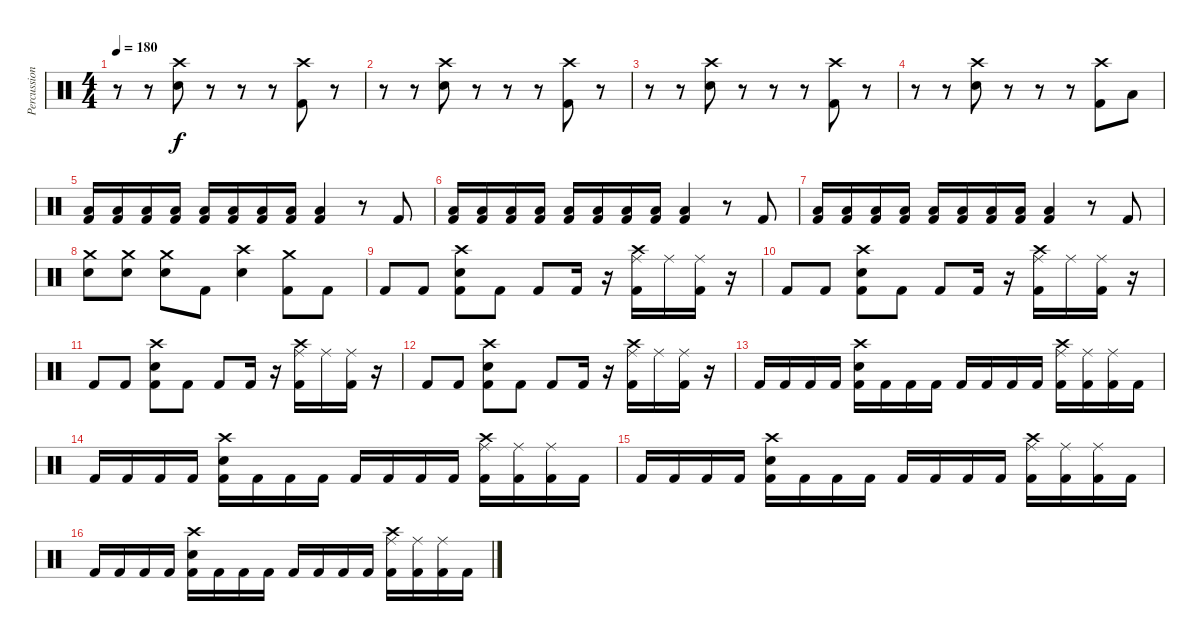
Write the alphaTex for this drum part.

\track ("Percussions" "Percussion") {instrument percussion}
\staff {score}
\articulation defaults
\ts (4 4)
\tempo 180
\clef neutral
\ks c
r.8{dy f} r.8 ("Crash high (hit)" "Snare (hit) 2").8 r.8 r.8 r.8 ("Crash high (hit)" "Kick (hit) 2").8 r.8 |
r.8 r.8 ("Crash high (hit)" "Snare (hit) 2").8 r.8 r.8 r.8 ("Crash high (hit)" "Kick (hit) 2").8 r.8 |
r.8 r.8 ("Crash high (hit)" "Snare (hit) 2").8 r.8 r.8 r.8 ("Crash high (hit)" "Kick (hit) 2").8 r.8 |
r.8 r.8 ("Crash high (hit)" "Snare (hit) 2").8 r.8 r.8 r.8 ("Crash high (hit)" "Kick (hit) 2").8 "Low Floor Tom (hit)".8 |
("Low Floor Tom (hit)" "Kick (hit) 2").16 ("Low Floor Tom (hit)" "Kick (hit) 2").16 ("Low Floor Tom (hit)" "Kick (hit) 2").16 ("Low Floor Tom (hit)" "Kick (hit) 2").16 ("Low Floor Tom (hit)" "Kick (hit) 2").16 ("Low Floor Tom (hit)" "Kick (hit) 2").16 ("Low Floor Tom (hit)" "Kick (hit) 2").16 ("Low Floor Tom (hit)" "Kick (hit) 2").16 ("Low Floor Tom (hit)" "Kick (hit) 2").4 r.8 "Kick (hit) 2".8 |
("Low Floor Tom (hit)" "Kick (hit) 2").16 ("Low Floor Tom (hit)" "Kick (hit) 2").16 ("Low Floor Tom (hit)" "Kick (hit) 2").16 ("Low Floor Tom (hit)" "Kick (hit) 2").16 ("Low Floor Tom (hit)" "Kick (hit) 2").16 ("Low Floor Tom (hit)" "Kick (hit) 2").16 ("Low Floor Tom (hit)" "Kick (hit) 2").16 ("Low Floor Tom (hit)" "Kick (hit) 2").16 ("Low Floor Tom (hit)" "Kick (hit) 2").4 r.8 "Kick (hit) 2".8 |
("Low Floor Tom (hit)" "Kick (hit) 2").16 ("Low Floor Tom (hit)" "Kick (hit) 2").16 ("Low Floor Tom (hit)" "Kick (hit) 2").16 ("Low Floor Tom (hit)" "Kick (hit) 2").16 ("Low Floor Tom (hit)" "Kick (hit) 2").16 ("Low Floor Tom (hit)" "Kick (hit) 2").16 ("Low Floor Tom (hit)" "Kick (hit) 2").16 ("Low Floor Tom (hit)" "Kick (hit) 2").16 ("Low Floor Tom (hit)" "Kick (hit) 2").4 r.8 "Kick (hit) 2".8 |
("Crash medium (hit)" "Snare (hit) 2").8 ("Crash medium (hit)" "Snare (hit) 2").8 ("Crash medium (hit)" "Snare (hit) 2").8 "Kick (hit) 2".8 ("Crash high (hit)" "Snare (hit) 2").4 ("Crash medium (hit)" "Kick (hit) 2").8 "Kick (hit) 2".8 |
"Kick (hit) 2".8 "Kick (hit) 2".8 ("Crash high (hit)" "Snare (hit) 2" "Kick (hit) 2").8 "Kick (hit) 2".8 "Kick (hit) 2".8 "Kick (hit) 2".16 r.16 ("Crash high (hit)" "Ride (middle)" "Kick (hit) 2").16 "Ride (middle)".16 ("Ride (middle)" "Kick (hit) 2").16 r.16 |
"Kick (hit) 2".8 "Kick (hit) 2".8 ("Crash high (hit)" "Snare (hit) 2" "Kick (hit) 2").8 "Kick (hit) 2".8 "Kick (hit) 2".8 "Kick (hit) 2".16 r.16 ("Crash high (hit)" "Ride (middle)" "Kick (hit) 2").16 "Ride (middle)".16 ("Ride (middle)" "Kick (hit) 2").16 r.16 |
"Kick (hit) 2".8 "Kick (hit) 2".8 ("Crash high (hit)" "Snare (hit) 2" "Kick (hit) 2").8 "Kick (hit) 2".8 "Kick (hit) 2".8 "Kick (hit) 2".16 r.16 ("Crash high (hit)" "Ride (middle)" "Kick (hit) 2").16 "Ride (middle)".16 ("Ride (middle)" "Kick (hit) 2").16 r.16 |
"Kick (hit) 2".8 "Kick (hit) 2".8 ("Crash high (hit)" "Snare (hit) 2" "Kick (hit) 2").8 "Kick (hit) 2".8 "Kick (hit) 2".8 "Kick (hit) 2".16 r.16 ("Crash high (hit)" "Ride (middle)" "Kick (hit) 2").16 "Ride (middle)".16 ("Ride (middle)" "Kick (hit) 2").16 r.16 |
"Kick (hit) 2".16 "Kick (hit) 2".16 "Kick (hit) 2".16 "Kick (hit) 2".16 ("Crash high (hit)" "Snare (hit) 2" "Kick (hit) 2").16 "Kick (hit) 2".16 "Kick (hit) 2".16 "Kick (hit) 2".16 "Kick (hit) 2".16 "Kick (hit) 2".16 "Kick (hit) 2".16 "Kick (hit) 2".16 ("Crash high (hit)" "Ride (middle)" "Kick (hit) 2").16 ("Ride (middle)" "Kick (hit) 2").16 ("Ride (middle)" "Kick (hit) 2").16 "Kick (hit) 2".16 |
"Kick (hit) 2".16 "Kick (hit) 2".16 "Kick (hit) 2".16 "Kick (hit) 2".16 ("Crash high (hit)" "Snare (hit) 2" "Kick (hit) 2").16 "Kick (hit) 2".16 "Kick (hit) 2".16 "Kick (hit) 2".16 "Kick (hit) 2".16 "Kick (hit) 2".16 "Kick (hit) 2".16 "Kick (hit) 2".16 ("Crash high (hit)" "Ride (middle)" "Kick (hit) 2").16 ("Ride (middle)" "Kick (hit) 2").16 ("Ride (middle)" "Kick (hit) 2").16 "Kick (hit) 2".16 |
"Kick (hit) 2".16 "Kick (hit) 2".16 "Kick (hit) 2".16 "Kick (hit) 2".16 ("Crash high (hit)" "Snare (hit) 2" "Kick (hit) 2").16 "Kick (hit) 2".16 "Kick (hit) 2".16 "Kick (hit) 2".16 "Kick (hit) 2".16 "Kick (hit) 2".16 "Kick (hit) 2".16 "Kick (hit) 2".16 ("Crash high (hit)" "Ride (middle)" "Kick (hit) 2").16 ("Ride (middle)" "Kick (hit) 2").16 ("Ride (middle)" "Kick (hit) 2").16 "Kick (hit) 2".16 |
"Kick (hit) 2".16 "Kick (hit) 2".16 "Kick (hit) 2".16 "Kick (hit) 2".16 ("Crash high (hit)" "Snare (hit) 2" "Kick (hit) 2").16 "Kick (hit) 2".16 "Kick (hit) 2".16 "Kick (hit) 2".16 "Kick (hit) 2".16 "Kick (hit) 2".16 "Kick (hit) 2".16 "Kick (hit) 2".16 ("Crash high (hit)" "Ride (middle)" "Kick (hit) 2").16 ("Ride (middle)" "Kick (hit) 2").16 ("Ride (middle)" "Kick (hit) 2").16 "Kick (hit) 2".16
